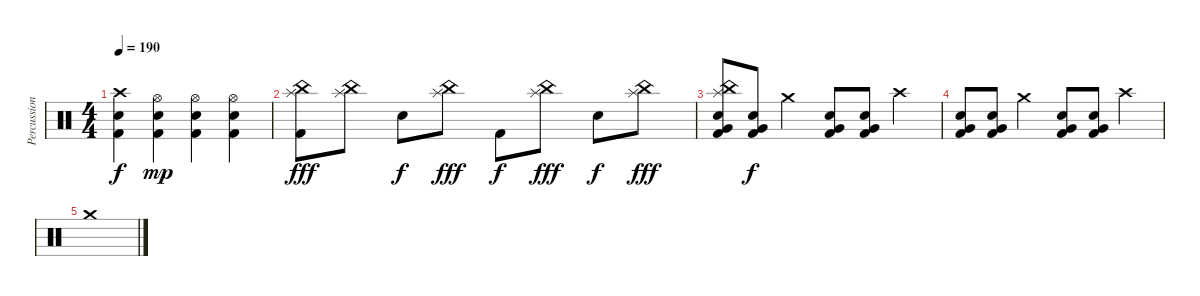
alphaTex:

\track ("Percussion" "Percussion") {instrument percussion}
\staff {score}
\articulation defaults
\ts (4 4)
\tempo 190
\clef neutral
\ks c
("Crash high (hit)" "Electric Snare (hit)" "Kick (hit) 2").4{dy f} ("Hi-Hat (open)" "Electric Snare (hit)" "Kick (hit) 2").4{dy mp} ("Hi-Hat (open)" "Electric Snare (hit)" "Kick (hit) 2").4 ("Hi-Hat (open)" "Electric Snare (hit)" "Kick (hit) 2").4 |
("China (hit)" "Splash (hit)" "Kick (hit) 2").8{dy fff} ("China (hit)" "Splash (hit)").8 "Electric Snare (hit)".8{dy f} ("China (hit)" "Splash (hit)").8{dy fff} "Kick (hit) 2".8{dy f} ("China (hit)" "Splash (hit)").8{dy fff} "Electric Snare (hit)".8{dy f} ("China (hit)" "Splash (hit)").8{dy fff} |
("China (hit)" "Splash (hit)" "Electric Snare (hit)" "Very Low Tom (hit)" "Kick (hit) 2").8 ("Electric Snare (hit)" "Very Low Tom (hit)" "Kick (hit) 2").8{dy f} "Crash medium (hit)".4 ("Electric Snare (hit)" "Very Low Tom (hit)" "Kick (hit) 2").8 ("Electric Snare (hit)" "Very Low Tom (hit)" "Kick (hit) 2").8 "Crash high (hit)".4 |
("Electric Snare (hit)" "Very Low Tom (hit)" "Kick (hit) 2").8 ("Electric Snare (hit)" "Very Low Tom (hit)" "Kick (hit) 2").8 "Crash medium (hit)".4 ("Electric Snare (hit)" "Very Low Tom (hit)" "Kick (hit) 2").8 ("Electric Snare (hit)" "Very Low Tom (hit)" "Kick (hit) 2").8 "Crash high (hit)".4 |
"Crash medium (hit)".1
